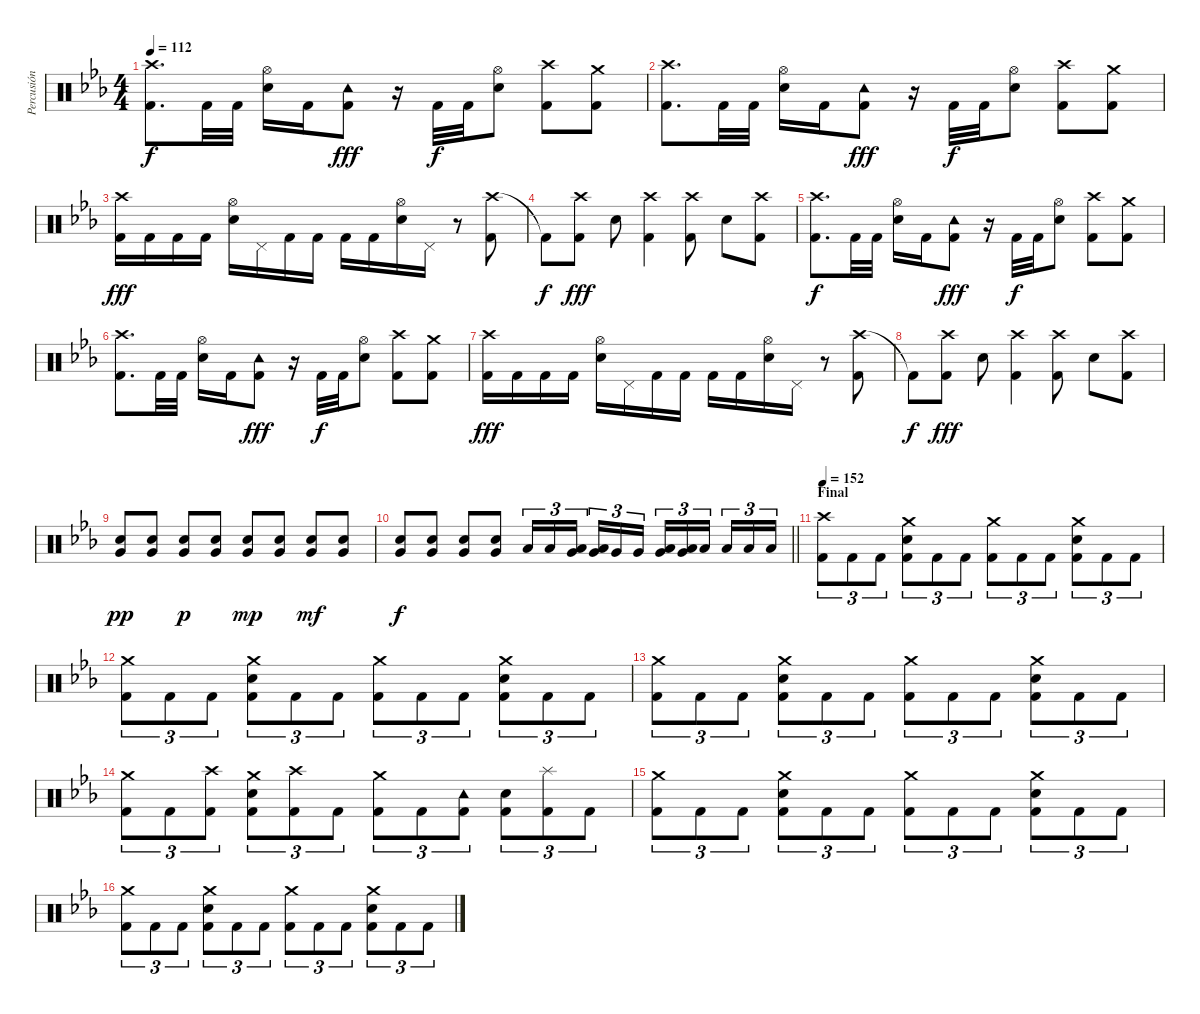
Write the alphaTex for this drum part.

\track ("Percusión" "Percusión") {instrument percussion}
\staff {score}
\articulation defaults
\ts (4 4)
\tempo 112
\clef neutral
\ks cminor
("Crash high (hit)" "Kick (hit) 2").8{d dy f} "Kick (hit) 2".32 "Kick (hit) 2".32 ("Hi-Hat (open)" "Snare (hit) 2").16 "Kick (hit) 2".16 ("Tambourine (hit)" "Kick (hit) 2").8{dy fff} r.16 "Kick (hit) 2".32{dy f} "Kick (hit) 2".32 ("Hi-Hat (open)" "Snare (hit) 2").8 ("Crash high (hit)" "Kick (hit) 2").8 ("Crash medium (hit)" "Kick (hit) 2").8 |
("Crash high (hit)" "Kick (hit) 2").8{d} "Kick (hit) 2".32 "Kick (hit) 2".32 ("Hi-Hat (open)" "Snare (hit) 2").16 "Kick (hit) 2".16 ("Tambourine (hit)" "Kick (hit) 2").8{dy fff} r.16 "Kick (hit) 2".32{dy f} "Kick (hit) 2".32 ("Hi-Hat (open)" "Snare (hit) 2").8 ("Crash high (hit)" "Kick (hit) 2").8 ("Crash medium (hit)" "Kick (hit) 2").8 |
("Crash high (hit)" "Kick (hit) 2").16{dy fff} "Kick (hit) 2".16 "Kick (hit) 2".16 "Kick (hit) 2".16 ("Hi-Hat (open)" "Snare (hit) 2").16 "Pedal Hi-Hat (hit)".16 "Kick (hit) 2".16 "Kick (hit) 2".16 "Kick (hit) 2".16 "Kick (hit) 2".16 ("Hi-Hat (open)" "Snare (hit) 2").16 "Pedal Hi-Hat (hit)".16 r.8 ("Crash high (hit)" "Kick (hit) 2").8 |
"Kick (hit) 2"{t}.8{dy f} ("Crash high (hit)" "Kick (hit) 2").8{dy fff} "Snare (hit) 2".8 ("Crash high (hit)" "Kick (hit) 2").4 ("Crash high (hit)" "Kick (hit) 2").8 "Snare (hit) 2".8 ("Crash high (hit)" "Kick (hit) 2").8 |
("Crash high (hit)" "Kick (hit) 2").8{d dy f} "Kick (hit) 2".32 "Kick (hit) 2".32 ("Hi-Hat (open)" "Snare (hit) 2").16 "Kick (hit) 2".16 ("Tambourine (hit)" "Kick (hit) 2").8{dy fff} r.16 "Kick (hit) 2".32{dy f} "Kick (hit) 2".32 ("Hi-Hat (open)" "Snare (hit) 2").8 ("Crash high (hit)" "Kick (hit) 2").8 ("Crash medium (hit)" "Kick (hit) 2").8 |
("Crash high (hit)" "Kick (hit) 2").8{d} "Kick (hit) 2".32 "Kick (hit) 2".32 ("Hi-Hat (open)" "Snare (hit) 2").16 "Kick (hit) 2".16 ("Tambourine (hit)" "Kick (hit) 2").8{dy fff} r.16 "Kick (hit) 2".32{dy f} "Kick (hit) 2".32 ("Hi-Hat (open)" "Snare (hit) 2").8 ("Crash high (hit)" "Kick (hit) 2").8 ("Crash medium (hit)" "Kick (hit) 2").8 |
("Crash high (hit)" "Kick (hit) 2").16{dy fff} "Kick (hit) 2".16 "Kick (hit) 2".16 "Kick (hit) 2".16 ("Hi-Hat (open)" "Snare (hit) 2").16 "Pedal Hi-Hat (hit)".16 "Kick (hit) 2".16 "Kick (hit) 2".16 "Kick (hit) 2".16 "Kick (hit) 2".16 ("Hi-Hat (open)" "Snare (hit) 2").16 "Pedal Hi-Hat (hit)".16 r.8 ("Crash high (hit)" "Kick (hit) 2").8 |
"Kick (hit) 2"{t}.8{dy f} ("Crash high (hit)" "Kick (hit) 2").8{dy fff} "Snare (hit) 2".8 ("Crash high (hit)" "Kick (hit) 2").4 ("Crash high (hit)" "Kick (hit) 2").8 "Snare (hit) 2".8 ("Crash high (hit)" "Kick (hit) 2").8 |
("Snare (hit) 2" "Very Low Tom (hit)").8{dy pp} ("Snare (hit) 2" "Very Low Tom (hit)").8 ("Snare (hit) 2" "Very Low Tom (hit)").8{dy p} ("Snare (hit) 2" "Very Low Tom (hit)").8 ("Snare (hit) 2" "Very Low Tom (hit)").8{dy mp} ("Snare (hit) 2" "Very Low Tom (hit)").8 ("Snare (hit) 2" "Very Low Tom (hit)").8{dy mf} ("Snare (hit) 2" "Very Low Tom (hit)").8 |
\barLineRight lightlight
("Snare (hit) 2" "Very Low Tom (hit)").8{dy f} ("Snare (hit) 2" "Very Low Tom (hit)").8 ("Snare (hit) 2" "Very Low Tom (hit)").8 ("Snare (hit) 2" "Very Low Tom (hit)").8 "Low Tom (hit)".16{tu (3 2)} "Low Tom (hit)".16{tu (3 2)} ("Low Tom (hit)" "Very Low Tom (hit)").16{tu (3 2) beam splitsecondary} ("Low Tom (hit)" "Very Low Tom (hit)").16{tu (3 2)} "Very Low Tom (hit)".16{tu (3 2)} "Very Low Tom (hit)".16{tu (3 2)} ("Very Low Tom (hit)" "Low Floor Tom (hit)").16{tu (3 2)} ("Very Low Tom (hit)" "Low Floor Tom (hit)").16{tu (3 2)} "Low Floor Tom (hit)".16{tu (3 2) beam splitsecondary} "Low Floor Tom (hit)".16{tu (3 2)} "Low Floor Tom (hit)".16{tu (3 2)} "Low Floor Tom (hit)".16{tu (3 2)} |
\section ("" "Final")
\tempo 152
("Crash high (hit)" "Kick (hit) 2").8{tu (3 2)} "Kick (hit) 2".8{tu (3 2)} "Kick (hit) 2".8{tu (3 2)} ("Crash medium (hit)" "Snare (hit) 2" "Kick (hit) 2").8{tu (3 2)} "Kick (hit) 2".8{tu (3 2)} "Kick (hit) 2".8{tu (3 2)} ("Crash medium (hit)" "Kick (hit) 2").8{tu (3 2)} "Kick (hit) 2".8{tu (3 2)} "Kick (hit) 2".8{tu (3 2)} ("Crash medium (hit)" "Snare (hit) 2" "Kick (hit) 2").8{tu (3 2)} "Kick (hit) 2".8{tu (3 2)} "Kick (hit) 2".8{tu (3 2)} |
("Crash medium (hit)" "Kick (hit) 2").8{tu (3 2)} "Kick (hit) 2".8{tu (3 2)} "Kick (hit) 2".8{tu (3 2)} ("Crash medium (hit)" "Snare (hit) 2" "Kick (hit) 2").8{tu (3 2)} "Kick (hit) 2".8{tu (3 2)} "Kick (hit) 2".8{tu (3 2)} ("Crash medium (hit)" "Kick (hit) 2").8{tu (3 2)} "Kick (hit) 2".8{tu (3 2)} "Kick (hit) 2".8{tu (3 2)} ("Crash medium (hit)" "Snare (hit) 2" "Kick (hit) 2").8{tu (3 2)} "Kick (hit) 2".8{tu (3 2)} "Kick (hit) 2".8{tu (3 2)} |
("Crash medium (hit)" "Kick (hit) 2").8{tu (3 2)} "Kick (hit) 2".8{tu (3 2)} "Kick (hit) 2".8{tu (3 2)} ("Crash medium (hit)" "Snare (hit) 2" "Kick (hit) 2").8{tu (3 2)} "Kick (hit) 2".8{tu (3 2)} "Kick (hit) 2".8{tu (3 2)} ("Crash medium (hit)" "Kick (hit) 2").8{tu (3 2)} "Kick (hit) 2".8{tu (3 2)} "Kick (hit) 2".8{tu (3 2)} ("Crash medium (hit)" "Snare (hit) 2" "Kick (hit) 2").8{tu (3 2)} "Kick (hit) 2".8{tu (3 2)} "Kick (hit) 2".8{tu (3 2)} |
("Crash medium (hit)" "Kick (hit) 2").8{tu (3 2)} "Kick (hit) 2".8{tu (3 2)} ("Crash high (hit)" "Kick (hit) 2").8{tu (3 2)} ("Crash medium (hit)" "Snare (hit) 2" "Kick (hit) 2").8{tu (3 2)} ("Crash high (hit)" "Kick (hit) 2").8{tu (3 2)} "Kick (hit) 2".8{tu (3 2)} ("Crash medium (hit)" "Kick (hit) 2").8{tu (3 2)} "Kick (hit) 2".8{tu (3 2)} ("Tambourine (hit)" "Kick (hit) 2").8{tu (3 2)} ("Snare (hit) 2" "Kick (hit) 2").8{tu (3 2)} ("Splash (hit)" "Kick (hit) 2").8{tu (3 2)} "Kick (hit) 2".8{tu (3 2)} |
("Crash medium (hit)" "Kick (hit) 2").8{tu (3 2)} "Kick (hit) 2".8{tu (3 2)} "Kick (hit) 2".8{tu (3 2)} ("Crash medium (hit)" "Snare (hit) 2" "Kick (hit) 2").8{tu (3 2)} "Kick (hit) 2".8{tu (3 2)} "Kick (hit) 2".8{tu (3 2)} ("Crash medium (hit)" "Kick (hit) 2").8{tu (3 2)} "Kick (hit) 2".8{tu (3 2)} "Kick (hit) 2".8{tu (3 2)} ("Crash medium (hit)" "Snare (hit) 2" "Kick (hit) 2").8{tu (3 2)} "Kick (hit) 2".8{tu (3 2)} "Kick (hit) 2".8{tu (3 2)} |
("Crash medium (hit)" "Kick (hit) 2").8{tu (3 2)} "Kick (hit) 2".8{tu (3 2)} "Kick (hit) 2".8{tu (3 2)} ("Crash medium (hit)" "Snare (hit) 2" "Kick (hit) 2").8{tu (3 2)} "Kick (hit) 2".8{tu (3 2)} "Kick (hit) 2".8{tu (3 2)} ("Crash medium (hit)" "Kick (hit) 2").8{tu (3 2)} "Kick (hit) 2".8{tu (3 2)} "Kick (hit) 2".8{tu (3 2)} ("Crash medium (hit)" "Snare (hit) 2" "Kick (hit) 2").8{tu (3 2)} "Kick (hit) 2".8{tu (3 2)} "Kick (hit) 2".8{tu (3 2)}
